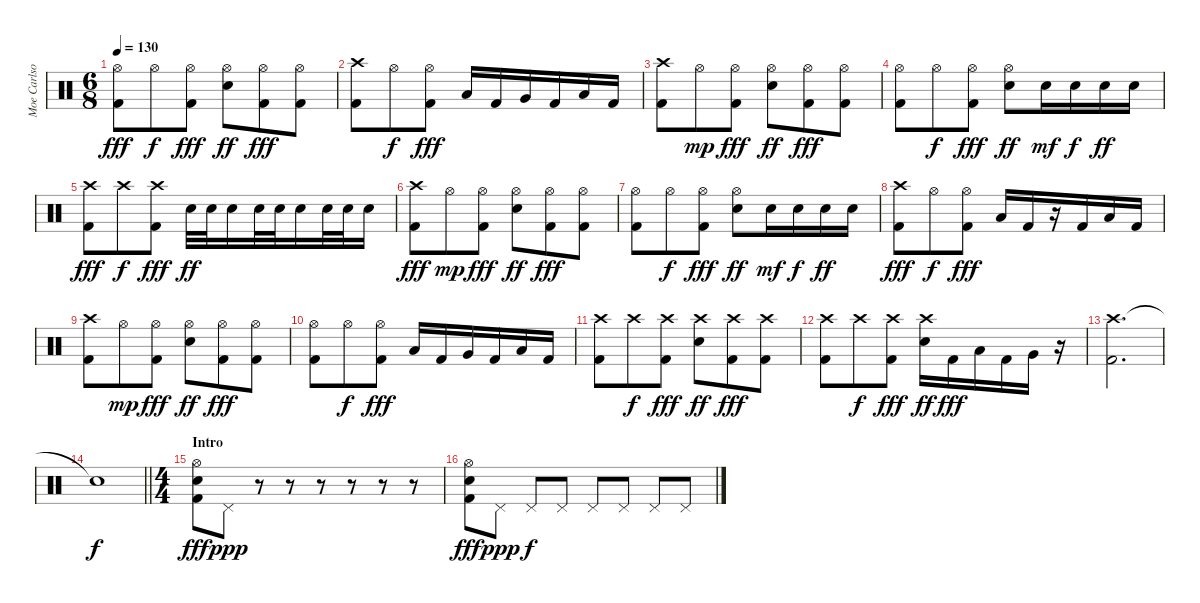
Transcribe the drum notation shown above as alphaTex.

\track ("Moe Carlson" "Moe Carlso") {instrument percussion}
\staff {score}
\articulation defaults
\ts (6 8)
\tempo 130
\clef neutral
\ks c
("Hi-Hat (open)" "Kick (hit) 2").8{dy fff} "Hi-Hat (open)".8{dy f} ("Hi-Hat (open)" "Kick (hit) 2").8{dy fff} ("Hi-Hat (open)" "Electric Snare (hit)").8{dy ff} ("Hi-Hat (open)" "Kick (hit) 2").8{dy fff} ("Hi-Hat (open)" "Kick (hit) 2").8 |
("Crash high (hit)" "Kick (hit) 2").8 "Hi-Hat (open)".8{dy f} ("Hi-Hat (open)" "Kick (hit) 2").8{dy fff} "Low Tom (hit)".16 "Kick (hit) 2".16 "Very Low Tom (hit)".16 "Kick (hit) 2".16 "Low Floor Tom (hit)".16 "Kick (hit) 2".16 |
("Crash high (hit)" "Kick (hit) 2").8 "Hi-Hat (open)".8{dy mp} ("Hi-Hat (open)" "Kick (hit) 2").8{dy fff} ("Hi-Hat (open)" "Electric Snare (hit)").8{dy ff} ("Hi-Hat (open)" "Kick (hit) 2").8{dy fff} ("Hi-Hat (open)" "Kick (hit) 2").8 |
("Hi-Hat (open)" "Kick (hit) 2").8 "Hi-Hat (open)".8{dy f} ("Hi-Hat (open)" "Kick (hit) 2").8{dy fff} ("Hi-Hat (open)" "Electric Snare (hit)").8{dy ff} "Electric Snare (hit)".16{dy mf} "Electric Snare (hit)".16{dy f} "Electric Snare (hit)".16{dy ff} "Electric Snare (hit)".16 |
("Crash high (hit)" "Kick (hit) 2").8{dy fff} "Crash high (hit)".8{dy f} ("Crash high (hit)" "Kick (hit) 2").8{dy fff} "Electric Snare (hit)".32{dy ff} "Electric Snare (hit)".32 "Electric Snare (hit)".16 "Electric Snare (hit)".32 "Electric Snare (hit)".32 "Electric Snare (hit)".16 "Electric Snare (hit)".32 "Electric Snare (hit)".32 "Electric Snare (hit)".16 |
("Crash high (hit)" "Kick (hit) 2").8{dy fff} "Hi-Hat (open)".8{dy mp} ("Hi-Hat (open)" "Kick (hit) 2").8{dy fff} ("Hi-Hat (open)" "Electric Snare (hit)").8{dy ff} ("Hi-Hat (open)" "Kick (hit) 2").8{dy fff} ("Hi-Hat (open)" "Kick (hit) 2").8 |
("Hi-Hat (open)" "Kick (hit) 2").8 "Hi-Hat (open)".8{dy f} ("Hi-Hat (open)" "Kick (hit) 2").8{dy fff} ("Hi-Hat (open)" "Electric Snare (hit)").8{dy ff} "Electric Snare (hit)".16{dy mf} "Electric Snare (hit)".16{dy f} "Electric Snare (hit)".16{dy ff} "Electric Snare (hit)".16 |
("Crash high (hit)" "Kick (hit) 2").8{dy fff} "Hi-Hat (open)".8{dy f} ("Hi-Hat (open)" "Kick (hit) 2").8{dy fff} "Low Tom (hit)".16 "Kick (hit) 2".16 r.16 "Kick (hit) 2".16 "Low Floor Tom (hit)".16 "Kick (hit) 2".16 |
("Crash high (hit)" "Kick (hit) 2").8 "Hi-Hat (open)".8{dy mp} ("Hi-Hat (open)" "Kick (hit) 2").8{dy fff} ("Hi-Hat (open)" "Electric Snare (hit)").8{dy ff} ("Hi-Hat (open)" "Kick (hit) 2").8{dy fff} ("Hi-Hat (open)" "Kick (hit) 2").8 |
("Hi-Hat (open)" "Kick (hit) 2").8 "Hi-Hat (open)".8{dy f} ("Hi-Hat (open)" "Kick (hit) 2").8{dy fff} "Low Tom (hit)".16 "Kick (hit) 2".16 "Very Low Tom (hit)".16 "Kick (hit) 2".16 "Low Floor Tom (hit)".16 "Kick (hit) 2".16 |
("Crash high (hit)" "Kick (hit) 2").8 "Crash high (hit)".8{dy f} ("Crash high (hit)" "Kick (hit) 2").8{dy fff} ("Crash high (hit)" "Electric Snare (hit)").8{dy ff} ("Crash high (hit)" "Kick (hit) 2").8{dy fff} ("Crash high (hit)" "Kick (hit) 2").8 |
("Crash high (hit)" "Kick (hit) 2").8 "Crash high (hit)".8{dy f} ("Crash high (hit)" "Kick (hit) 2").8{dy fff} ("Crash high (hit)" "Electric Snare (hit)").16{dy ff} "Kick (hit) 2".16{dy fff} "Low Tom (hit)".16 "Kick (hit) 2".16 "Very Low Tom (hit)".16 r.16 |
("Crash high (hit)" "Kick (hit) 2").2{d} |
\barLineRight lightlight "Snare (hit)"{t}.1{dy f}
|
\ts (4 4)
\section ("" "Intro")
("Hi-Hat (open)" "Electric Snare (hit)" "Kick (hit) 2").8{dy fff} "Pedal Hi-Hat (hit)".8{dy ppp} r.8 r.8 r.8 r.8 r.8 r.8 |
("Hi-Hat (open)" "Electric Snare (hit)" "Kick (hit) 2").8{dy fff} "Pedal Hi-Hat (hit)".8{dy ppp} "Pedal Hi-Hat (hit)".8{dy f} "Pedal Hi-Hat (hit)".8 "Pedal Hi-Hat (hit)".8 "Pedal Hi-Hat (hit)".8 "Pedal Hi-Hat (hit)".8 "Pedal Hi-Hat (hit)".8
